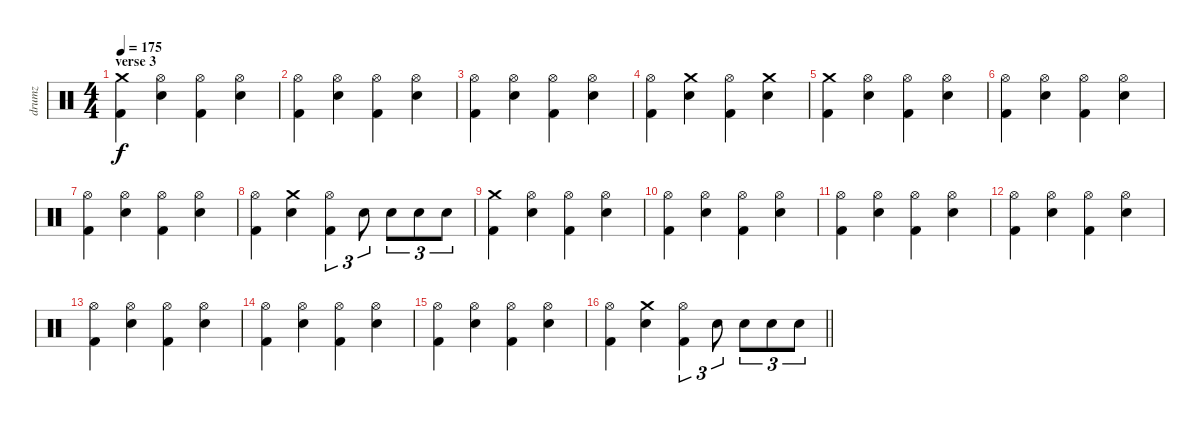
\track ("drumz" "drumz") {instrument percussion}
\staff {score}
\articulation defaults
\ts (4 4)
\section ("" "verse 3")
\tempo 175
\clef neutral
\ks c
("Crash medium (hit)" "Kick (hit) 2").4{dy f} ("Hi-Hat (open)" "Electric Snare (hit)").4 ("Hi-Hat (open)" "Kick (hit) 2").4 ("Hi-Hat (open)" "Electric Snare (hit)").4 |
("Hi-Hat (open)" "Kick (hit) 2").4 ("Hi-Hat (open)" "Electric Snare (hit)").4 ("Hi-Hat (open)" "Kick (hit) 2").4 ("Hi-Hat (open)" "Electric Snare (hit)").4 |
("Hi-Hat (open)" "Kick (hit) 2").4 ("Hi-Hat (open)" "Electric Snare (hit)").4 ("Hi-Hat (open)" "Kick (hit) 2").4 ("Hi-Hat (open)" "Electric Snare (hit)").4 |
("Hi-Hat (open)" "Kick (hit) 2").4 ("Crash medium (hit)" "Electric Snare (hit)").4 ("Hi-Hat (open)" "Kick (hit) 2").4 ("Crash medium (hit)" "Electric Snare (hit)").4 |
("Crash medium (hit)" "Kick (hit) 2").4 ("Hi-Hat (open)" "Electric Snare (hit)").4 ("Hi-Hat (open)" "Kick (hit) 2").4 ("Hi-Hat (open)" "Electric Snare (hit)").4 |
("Hi-Hat (open)" "Kick (hit) 2").4 ("Hi-Hat (open)" "Electric Snare (hit)").4 ("Hi-Hat (open)" "Kick (hit) 2").4 ("Hi-Hat (open)" "Electric Snare (hit)").4 |
("Hi-Hat (open)" "Kick (hit) 2").4 ("Hi-Hat (open)" "Electric Snare (hit)").4 ("Hi-Hat (open)" "Kick (hit) 2").4 ("Hi-Hat (open)" "Electric Snare (hit)").4 |
("Hi-Hat (open)" "Kick (hit) 2").4 ("Crash medium (hit)" "Electric Snare (hit)").4 ("Hi-Hat (open)" "Kick (hit) 2").4{tu (3 2)} "Electric Snare (hit)".8{tu (3 2)} "Electric Snare (hit)".8{tu (3 2)} "Electric Snare (hit)".8{tu (3 2)} "Electric Snare (hit)".8{tu (3 2)} |
("Crash medium (hit)" "Kick (hit) 2").4 ("Hi-Hat (open)" "Electric Snare (hit)").4 ("Hi-Hat (open)" "Kick (hit) 2").4 ("Hi-Hat (open)" "Electric Snare (hit)").4 |
("Hi-Hat (open)" "Kick (hit) 2").4 ("Hi-Hat (open)" "Electric Snare (hit)").4 ("Hi-Hat (open)" "Kick (hit) 2").4 ("Hi-Hat (open)" "Electric Snare (hit)").4 |
("Hi-Hat (open)" "Kick (hit) 2").4 ("Hi-Hat (open)" "Electric Snare (hit)").4 ("Hi-Hat (open)" "Kick (hit) 2").4 ("Hi-Hat (open)" "Electric Snare (hit)").4 |
("Hi-Hat (open)" "Kick (hit) 2").4 ("Hi-Hat (open)" "Electric Snare (hit)").4 ("Hi-Hat (open)" "Kick (hit) 2").4 ("Hi-Hat (open)" "Electric Snare (hit)").4 |
("Hi-Hat (open)" "Kick (hit) 2").4 ("Hi-Hat (open)" "Electric Snare (hit)").4 ("Hi-Hat (open)" "Kick (hit) 2").4 ("Hi-Hat (open)" "Electric Snare (hit)").4 |
("Hi-Hat (open)" "Kick (hit) 2").4 ("Hi-Hat (open)" "Electric Snare (hit)").4 ("Hi-Hat (open)" "Kick (hit) 2").4 ("Hi-Hat (open)" "Electric Snare (hit)").4 |
("Hi-Hat (open)" "Kick (hit) 2").4 ("Hi-Hat (open)" "Electric Snare (hit)").4 ("Hi-Hat (open)" "Kick (hit) 2").4 ("Hi-Hat (open)" "Electric Snare (hit)").4 |
\barLineRight lightlight
("Hi-Hat (open)" "Kick (hit) 2").4 ("Crash medium (hit)" "Electric Snare (hit)").4 ("Hi-Hat (open)" "Kick (hit) 2").4{tu (3 2)} "Electric Snare (hit)".8{tu (3 2)} "Electric Snare (hit)".8{tu (3 2)} "Electric Snare (hit)".8{tu (3 2)} "Electric Snare (hit)".8{tu (3 2)}
